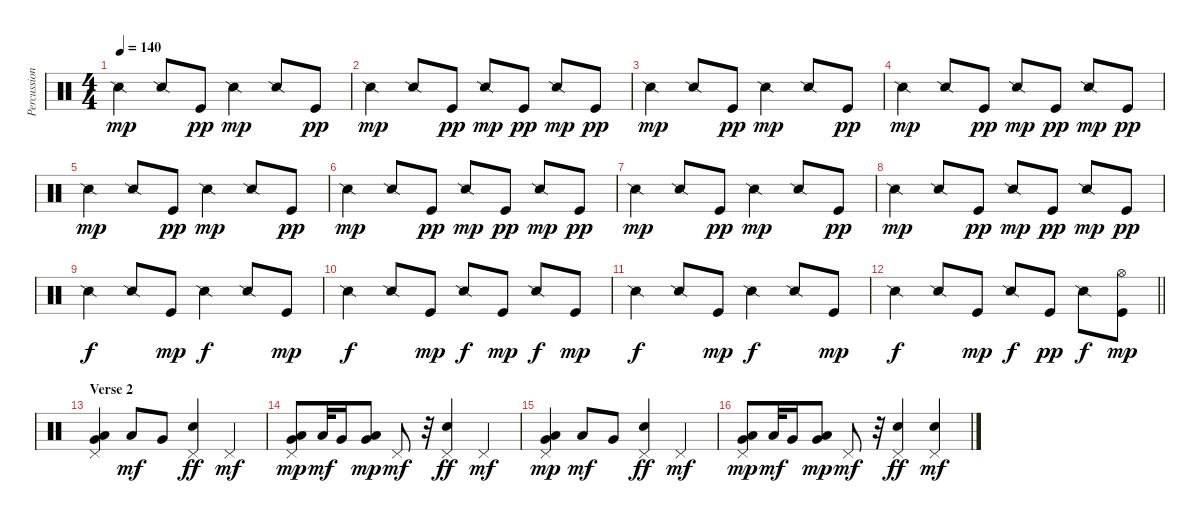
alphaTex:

\track ("Percussion" "Percussion") {instrument percussion}
\staff {score}
\articulation defaults
\ts (4 4)
\tempo 140
\clef neutral
\ks c "Snare (side stick) 2".4{dy mp} "Snare (side stick) 2".8 "Kick (hit)".8{dy pp} "Snare (side stick) 2".4{dy mp} "Snare (side stick) 2".8 "Kick (hit)".8{dy pp}
|
"Snare (side stick) 2".4{dy mp} "Snare (side stick) 2".8 "Kick (hit)".8{dy pp} "Snare (side stick) 2".8{dy mp} "Kick (hit)".8{dy pp} "Snare (side stick) 2".8{dy mp} "Kick (hit)".8{dy pp} |
"Snare (side stick) 2".4{dy mp} "Snare (side stick) 2".8 "Kick (hit)".8{dy pp} "Snare (side stick) 2".4{dy mp} "Snare (side stick) 2".8 "Kick (hit)".8{dy pp} |
"Snare (side stick) 2".4{dy mp} "Snare (side stick) 2".8 "Kick (hit)".8{dy pp} "Snare (side stick) 2".8{dy mp} "Kick (hit)".8{dy pp} "Snare (side stick) 2".8{dy mp} "Kick (hit)".8{dy pp} |
"Snare (side stick) 2".4{dy mp} "Snare (side stick) 2".8 "Kick (hit)".8{dy pp} "Snare (side stick) 2".4{dy mp} "Snare (side stick) 2".8 "Kick (hit)".8{dy pp} |
"Snare (side stick) 2".4{dy mp} "Snare (side stick) 2".8 "Kick (hit)".8{dy pp} "Snare (side stick) 2".8{dy mp} "Kick (hit)".8{dy pp} "Snare (side stick) 2".8{dy mp} "Kick (hit)".8{dy pp} |
"Snare (side stick) 2".4{dy mp} "Snare (side stick) 2".8 "Kick (hit)".8{dy pp} "Snare (side stick) 2".4{dy mp} "Snare (side stick) 2".8 "Kick (hit)".8{dy pp} |
"Snare (side stick) 2".4{dy mp} "Snare (side stick) 2".8 "Kick (hit)".8{dy pp} "Snare (side stick) 2".8{dy mp} "Kick (hit)".8{dy pp} "Snare (side stick) 2".8{dy mp} "Kick (hit)".8{dy pp} |
"Snare (side stick) 2".4{dy f} "Snare (side stick) 2".8 "Kick (hit)".8{dy mp} "Snare (side stick) 2".4{dy f} "Snare (side stick) 2".8 "Kick (hit)".8{dy mp} |
"Snare (side stick) 2".4{dy f} "Snare (side stick) 2".8 "Kick (hit)".8{dy mp} "Snare (side stick) 2".8{dy f} "Kick (hit)".8{dy mp} "Snare (side stick) 2".8{dy f} "Kick (hit)".8{dy mp} |
"Snare (side stick) 2".4{dy f} "Snare (side stick) 2".8 "Kick (hit)".8{dy mp} "Snare (side stick) 2".4{dy f} "Snare (side stick) 2".8 "Kick (hit)".8{dy mp} |
\barLineRight lightlight "Snare (side stick) 2".4{dy f} "Snare (side stick) 2".8 "Kick (hit)".8{dy mp} "Snare (side stick) 2".8{dy f} "Kick (hit)".8{dy pp} "Snare (side stick) 2".8{dy f}
("Kick (hit)" "Hi-Hat (open)").8{dy mp} |
\section ("" "Verse 2")
("Pedal Hi-Hat (hit)" "Very Low Tom (hit)" "Low Floor Tom (hit)").4 "Low Floor Tom (hit)".8{dy mf} "Very Low Tom (hit)".8 ("Pedal Hi-Hat (hit)" "Snare (hit) 2").4{dy ff} "Pedal Hi-Hat (hit)".4{dy mf} |
("Pedal Hi-Hat (hit)" "Very Low Tom (hit)" "Low Floor Tom (hit)").8{dy mp} "Low Floor Tom (hit)".32{dy mf} "Very Low Tom (hit)".16 ("Very Low Tom (hit)" "Low Floor Tom (hit)").8{dy mp} "Pedal Hi-Hat (hit)".8{dy mf} r.32 ("Pedal Hi-Hat (hit)" "Snare (hit) 2").4{dy ff} "Pedal Hi-Hat (hit)".4{dy mf} |
("Pedal Hi-Hat (hit)" "Very Low Tom (hit)" "Low Floor Tom (hit)").4{dy mp} "Low Floor Tom (hit)".8{dy mf} "Very Low Tom (hit)".8 ("Pedal Hi-Hat (hit)" "Snare (hit) 2").4{dy ff} "Pedal Hi-Hat (hit)".4{dy mf} |
("Pedal Hi-Hat (hit)" "Very Low Tom (hit)" "Low Floor Tom (hit)").8{dy mp} "Low Floor Tom (hit)".32{dy mf} "Very Low Tom (hit)".16 ("Very Low Tom (hit)" "Low Floor Tom (hit)").8{dy mp} "Pedal Hi-Hat (hit)".8{dy mf} r.32 ("Pedal Hi-Hat (hit)" "Snare (hit) 2").4{dy ff} ("Pedal Hi-Hat (hit)" "Snare (hit) 2").4{dy mf}
